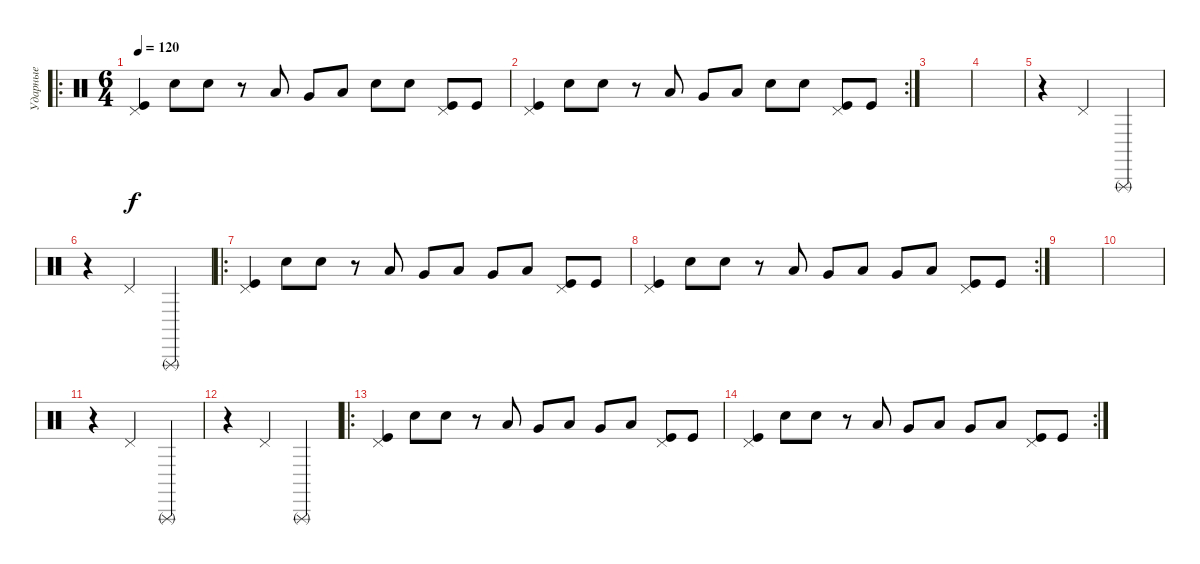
\track ("Ударные" "Ударные") {instrument percussion}
\staff {score}
\articulation defaults
\ro
\ts (6 4)
\tempo 120
\clef neutral
\ks c
("Pedal Hi-Hat (hit)" "Kick (hit)").4{dy f} "Electric Snare (hit)".8 "Electric Snare (hit)".8 r.8 "Low Tom (hit)".8 "Very Low Tom (hit)".8 "Low Floor Tom (hit)".8 "Electric Snare (hit)".8 "Electric Snare (hit)".8 ("Pedal Hi-Hat (hit)" "Kick (hit)").8 "Kick (hit)".8 |
\rc 2
("Pedal Hi-Hat (hit)" "Kick (hit)").4 "Electric Snare (hit)".8 "Electric Snare (hit)".8 r.8 "Low Tom (hit)".8 "Very Low Tom (hit)".8 "Low Floor Tom (hit)".8 "Electric Snare (hit)".8 "Electric Snare (hit)".8 ("Pedal Hi-Hat (hit)" "Kick (hit)").8 "Kick (hit)".8 |
|
|
r.4 "Pedal Hi-Hat (hit)".4 "Triangle (rnute)".4 |
r.4 "Pedal Hi-Hat (hit)".4 "Triangle (rnute)".4 |
\ro
("Pedal Hi-Hat (hit)" "Kick (hit)").4 "Electric Snare (hit)".8 "Electric Snare (hit)".8 r.8 "Low Tom (hit)".8 "Very Low Tom (hit)".8 "Low Floor Tom (hit)".8 "Very Low Tom (hit)".8 "Low Floor Tom (hit)".8 ("Pedal Hi-Hat (hit)" "Kick (hit)").8 "Kick (hit)".8 |
\rc 2
("Pedal Hi-Hat (hit)" "Kick (hit)").4 "Electric Snare (hit)".8 "Electric Snare (hit)".8 r.8 "Low Tom (hit)".8 "Very Low Tom (hit)".8 "Low Floor Tom (hit)".8 "Very Low Tom (hit)".8 "Low Floor Tom (hit)".8 ("Pedal Hi-Hat (hit)" "Kick (hit)").8 "Kick (hit)".8 |
|
|
r.4 "Pedal Hi-Hat (hit)".4 "Triangle (rnute)".4 |
r.4 "Pedal Hi-Hat (hit)".4 "Triangle (rnute)".4 |
\ro
("Pedal Hi-Hat (hit)" "Kick (hit)").4 "Electric Snare (hit)".8 "Electric Snare (hit)".8 r.8 "Low Tom (hit)".8 "Very Low Tom (hit)".8 "Low Floor Tom (hit)".8 "Very Low Tom (hit)".8 "Low Floor Tom (hit)".8 ("Pedal Hi-Hat (hit)" "Kick (hit)").8 "Kick (hit)".8 |
\rc 2
("Pedal Hi-Hat (hit)" "Kick (hit)").4 "Electric Snare (hit)".8 "Electric Snare (hit)".8 r.8 "Low Tom (hit)".8 "Very Low Tom (hit)".8 "Low Floor Tom (hit)".8 "Very Low Tom (hit)".8 "Low Floor Tom (hit)".8 ("Pedal Hi-Hat (hit)" "Kick (hit)").8 "Kick (hit)".8
